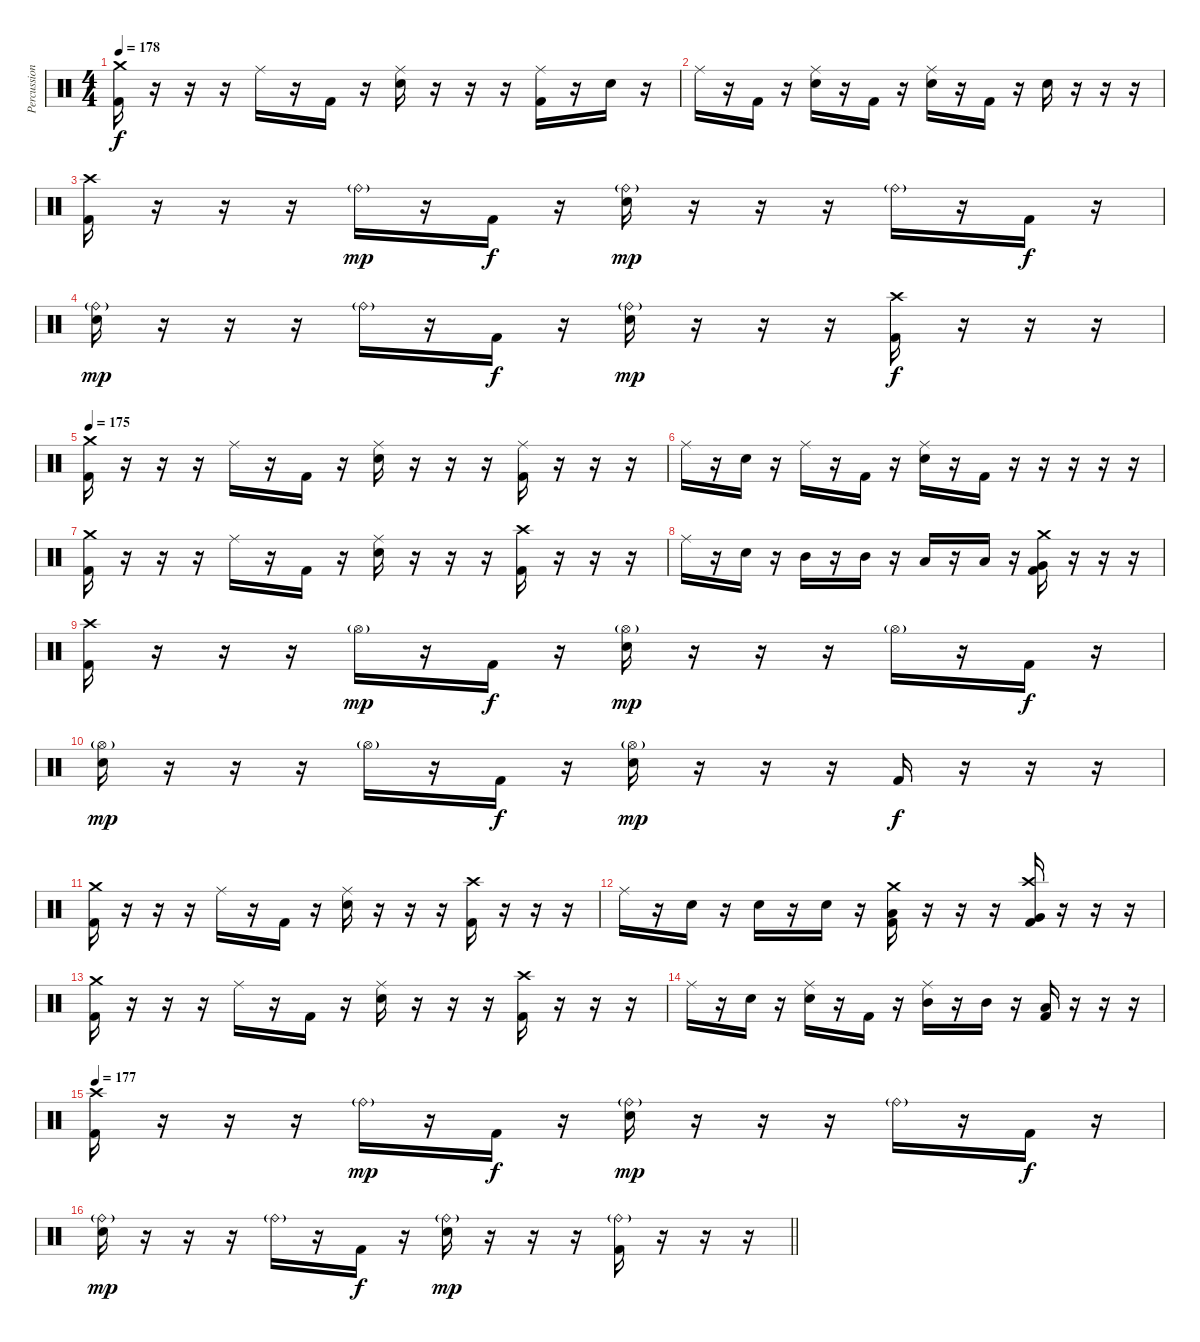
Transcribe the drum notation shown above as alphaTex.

\track ("Percussion" "Percussion") {instrument percussion}
\staff {score}
\articulation defaults
\ts (4 4)
\tempo 178
\clef neutral
\ks c
("Crash medium (hit)" "Kick (hit) 2").16{dy f} r.16 r.16 r.16 "Ride (middle)".16 r.16 "Kick (hit) 2".16 r.16 ("Ride (middle)" "Electric Snare (hit)").16 r.16 r.16 r.16 ("Ride (middle)" "Kick (hit) 2").16 r.16 "Electric Snare (hit)".16 r.16 |
"Ride (middle)".16 r.16 "Kick (hit) 2".16 r.16 ("Ride (middle)" "Electric Snare (hit)").16 r.16 "Kick (hit) 2".16 r.16 ("Ride (middle)" "Electric Snare (hit)").16 r.16 "Kick (hit) 2".16 r.16 "Electric Snare (hit)".16 r.16 r.16 r.16 |
("Crash high (hit)" "Kick (hit) 2").16 r.16 r.16 r.16 "Ride (bell)"{g}.16{dy mp} r.16 "Kick (hit) 2".16{dy f} r.16 ("Ride (bell)"{g} "Electric Snare (hit)").16{dy mp} r.16 r.16 r.16 "Ride (bell)"{g}.16 r.16 "Kick (hit) 2".16{dy f} r.16 |
("Ride (bell)"{g} "Electric Snare (hit)").16{dy mp} r.16 r.16 r.16 "Ride (bell)"{g}.16 r.16 "Kick (hit) 2".16{dy f} r.16 ("Ride (bell)"{g} "Electric Snare (hit)").16{dy mp} r.16 r.16 r.16 ("Crash high (hit)" "Kick (hit) 2").16{dy f} r.16 r.16 r.16 |
\tempo 175
("Crash medium (hit)" "Kick (hit) 2").16 r.16 r.16 r.16 "Ride (middle)".16 r.16 "Kick (hit) 2".16 r.16 ("Ride (middle)" "Electric Snare (hit)").16 r.16 r.16 r.16 ("Ride (middle)" "Kick (hit) 2").16 r.16 r.16 r.16 |
"Ride (middle)".16 r.16 "Electric Snare (hit)".16 r.16 "Ride (middle)".16 r.16 "Kick (hit) 2".16 r.16 ("Ride (middle)" "Electric Snare (hit)").16 r.16 "Kick (hit) 2".16 r.16 r.16 r.16 r.16 r.16 |
("Crash medium (hit)" "Kick (hit) 2").16 r.16 r.16 r.16 "Ride (middle)".16 r.16 "Kick (hit) 2".16 r.16 ("Ride (middle)" "Electric Snare (hit)").16 r.16 r.16 r.16 ("Crash high (hit)" "Kick (hit) 2").16 r.16 r.16 r.16 |
"Ride (middle)".16 r.16 "Electric Snare (hit)".16 r.16 "Mid Tom (hit)".16 r.16 "Mid Tom (hit)".16 r.16 "Low Tom (hit)".16 r.16 "Low Tom (hit)".16 r.16 ("Crash medium (hit)" "Very Low Tom (hit)" "Kick (hit) 2").16 r.16 r.16 r.16 |
("Crash high (hit)" "Kick (hit) 2").16 r.16 r.16 r.16 "Hi-Hat (open)"{g}.16{dy mp} r.16 "Kick (hit) 2".16{dy f} r.16 ("Hi-Hat (open)"{g} "Electric Snare (hit)").16{dy mp} r.16 r.16 r.16 "Hi-Hat (open)"{g}.16 r.16 "Kick (hit) 2".16{dy f} r.16 |
("Hi-Hat (open)"{g} "Electric Snare (hit)").16{dy mp} r.16 r.16 r.16 "Hi-Hat (open)"{g}.16 r.16 "Kick (hit) 2".16{dy f} r.16 ("Hi-Hat (open)"{g} "Electric Snare (hit)").16{dy mp} r.16 r.16 r.16 "Kick (hit) 2".16{dy f} r.16 r.16 r.16 |
("Crash medium (hit)" "Kick (hit) 2").16 r.16 r.16 r.16 "Ride (middle)".16 r.16 "Kick (hit) 2".16 r.16 ("Ride (middle)" "Electric Snare (hit)").16 r.16 r.16 r.16 ("Crash high (hit)" "Kick (hit) 2").16 r.16 r.16 r.16 |
"Ride (middle)".16 r.16 "Electric Snare (hit)".16 r.16 "Electric Snare (hit)".16 r.16 "Electric Snare (hit)".16 r.16 ("Crash medium (hit)" "Low Tom (hit)" "Kick (hit) 2").16 r.16 r.16 r.16 ("Crash high (hit)" "Very Low Tom (hit)" "Kick (hit) 2").16 r.16 r.16 r.16 |
("Crash medium (hit)" "Kick (hit) 2").16 r.16 r.16 r.16 "Ride (middle)".16 r.16 "Kick (hit) 2".16 r.16 ("Ride (middle)" "Electric Snare (hit)").16 r.16 r.16 r.16 ("Crash high (hit)" "Kick (hit) 2").16 r.16 r.16 r.16 |
"Ride (middle)".16 r.16 "Electric Snare (hit)".16 r.16 ("Ride (middle)" "Electric Snare (hit)").16 r.16 "Kick (hit) 2".16 r.16 ("Ride (middle)" "Mid Tom (hit)").16 r.16 "Mid Tom (hit)".16 r.16 ("Low Tom (hit)" "Kick (hit) 2").16 r.16 r.16 r.16 |
\tempo 177
("Crash high (hit)" "Kick (hit) 2").16 r.16 r.16 r.16 "Ride (bell)"{g}.16{dy mp} r.16 "Kick (hit) 2".16{dy f} r.16 ("Ride (bell)"{g} "Electric Snare (hit)").16{dy mp} r.16 r.16 r.16 "Ride (bell)"{g}.16 r.16 "Kick (hit) 2".16{dy f} r.16 |
\barLineRight lightlight
("Ride (bell)"{g} "Electric Snare (hit)").16{dy mp} r.16 r.16 r.16 "Ride (bell)"{g}.16 r.16 "Kick (hit) 2".16{dy f} r.16 ("Ride (bell)"{g} "Electric Snare (hit)").16{dy mp} r.16 r.16 r.16 ("Ride (bell)"{g} "Kick (hit) 2").16 r.16 r.16 r.16
